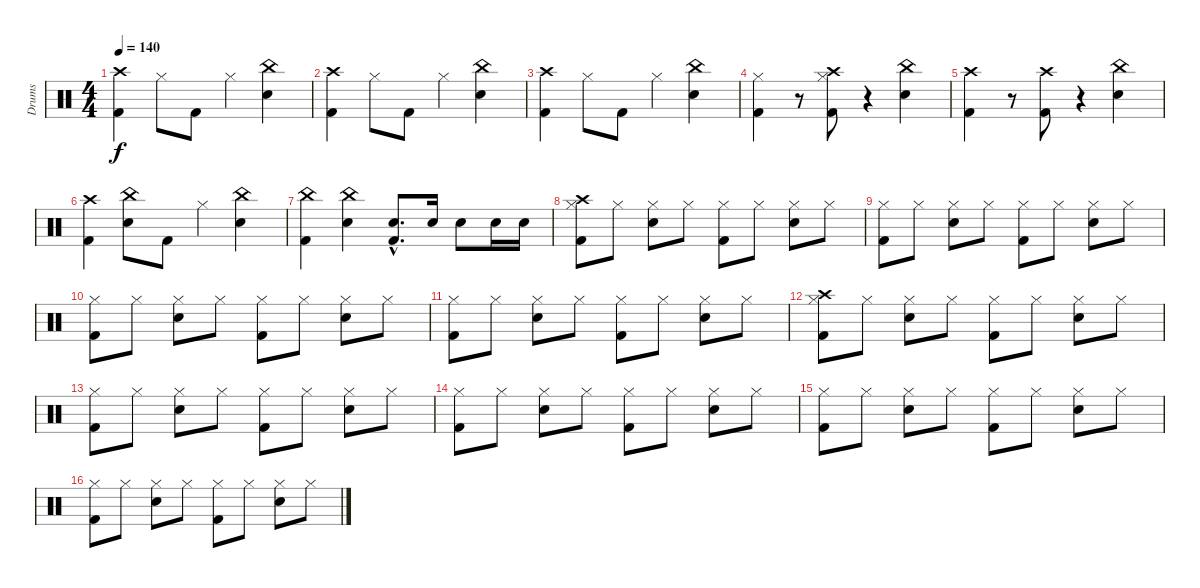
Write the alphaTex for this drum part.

\track ("Drums" "Drums") {instrument percussion}
\staff {score}
\articulation defaults
\ts (4 4)
\tempo 140
\clef neutral
\ks c
("Crash high (hit)" "Kick (hit) 2").4{dy f} "Hi-Hat (closed)".8 "Kick (hit) 2".8 "Hi-Hat (closed)".4 ("China (hit)" "Electric Snare (hit)").4 |
("Crash high (hit)" "Kick (hit) 2").4 "Hi-Hat (closed)".8 "Kick (hit) 2".8 "Hi-Hat (closed)".4 ("China (hit)" "Electric Snare (hit)").4 |
("Crash high (hit)" "Kick (hit) 2").4 "Hi-Hat (closed)".8 "Kick (hit) 2".8 "Hi-Hat (closed)".4 ("China (hit)" "Electric Snare (hit)").4 |
("Hi-Hat (closed)" "Kick (hit) 2").4 r.8 ("Crash high (hit)" "Kick (hit) 2" "Hi-Hat (closed)").8 r.4 ("China (hit)" "Electric Snare (hit)").4 |
("Crash high (hit)" "Kick (hit) 2").4 r.8 ("Crash high (hit)" "Kick (hit) 2").8 r.4 ("China (hit)" "Electric Snare (hit)").4 |
("Crash high (hit)" "Kick (hit) 2").4 ("China (hit)" "Electric Snare (hit)").8 "Kick (hit) 2".8 "Hi-Hat (closed)".4 ("China (hit)" "Electric Snare (hit)").4 |
("China (hit)" "Kick (hit) 2").4 ("China (hit)" "Electric Snare (hit)").4 ("Electric Snare (hit)"{hac} "Kick (hit) 2"{hac}).8{d} "Electric Snare (hit)".16 "Electric Snare (hit)".8 "Electric Snare (hit)".16 "Electric Snare (hit)".16 |
("Hi-Hat (closed)" "Kick (hit) 2" "Crash high (hit)").8 "Hi-Hat (closed)".8 ("Hi-Hat (closed)" "Electric Snare (hit)").8 "Hi-Hat (closed)".8 ("Hi-Hat (closed)" "Kick (hit) 2").8 "Hi-Hat (closed)".8 ("Hi-Hat (closed)" "Electric Snare (hit)").8 "Hi-Hat (closed)".8 |
("Hi-Hat (closed)" "Kick (hit) 2").8 "Hi-Hat (closed)".8 ("Hi-Hat (closed)" "Electric Snare (hit)").8 "Hi-Hat (closed)".8 ("Hi-Hat (closed)" "Kick (hit) 2").8 "Hi-Hat (closed)".8 ("Hi-Hat (closed)" "Electric Snare (hit)").8 "Hi-Hat (closed)".8 |
("Hi-Hat (closed)" "Kick (hit) 2").8 "Hi-Hat (closed)".8 ("Hi-Hat (closed)" "Electric Snare (hit)").8 "Hi-Hat (closed)".8 ("Hi-Hat (closed)" "Kick (hit) 2").8 "Hi-Hat (closed)".8 ("Hi-Hat (closed)" "Electric Snare (hit)").8 "Hi-Hat (closed)".8 |
("Hi-Hat (closed)" "Kick (hit) 2").8 "Hi-Hat (closed)".8 ("Hi-Hat (closed)" "Electric Snare (hit)").8 "Hi-Hat (closed)".8 ("Hi-Hat (closed)" "Kick (hit) 2").8 "Hi-Hat (closed)".8 ("Hi-Hat (closed)" "Electric Snare (hit)").8 "Hi-Hat (closed)".8 |
("Hi-Hat (closed)" "Kick (hit) 2" "Crash high (hit)").8 "Hi-Hat (closed)".8 ("Hi-Hat (closed)" "Electric Snare (hit)").8 "Hi-Hat (closed)".8 ("Hi-Hat (closed)" "Kick (hit) 2").8 "Hi-Hat (closed)".8 ("Hi-Hat (closed)" "Electric Snare (hit)").8 "Hi-Hat (closed)".8 |
("Hi-Hat (closed)" "Kick (hit) 2").8 "Hi-Hat (closed)".8 ("Hi-Hat (closed)" "Electric Snare (hit)").8 "Hi-Hat (closed)".8 ("Hi-Hat (closed)" "Kick (hit) 2").8 "Hi-Hat (closed)".8 ("Hi-Hat (closed)" "Electric Snare (hit)").8 "Hi-Hat (closed)".8 |
("Hi-Hat (closed)" "Kick (hit) 2").8 "Hi-Hat (closed)".8 ("Hi-Hat (closed)" "Electric Snare (hit)").8 "Hi-Hat (closed)".8 ("Hi-Hat (closed)" "Kick (hit) 2").8 "Hi-Hat (closed)".8 ("Hi-Hat (closed)" "Electric Snare (hit)").8 "Hi-Hat (closed)".8 |
("Hi-Hat (closed)" "Kick (hit) 2").8 "Hi-Hat (closed)".8 ("Hi-Hat (closed)" "Electric Snare (hit)").8 "Hi-Hat (closed)".8 ("Hi-Hat (closed)" "Kick (hit) 2").8 "Hi-Hat (closed)".8 ("Hi-Hat (closed)" "Electric Snare (hit)").8 "Hi-Hat (closed)".8 |
("Hi-Hat (closed)" "Kick (hit) 2").8 "Hi-Hat (closed)".8 ("Hi-Hat (closed)" "Electric Snare (hit)").8 "Hi-Hat (closed)".8 ("Hi-Hat (closed)" "Kick (hit) 2").8 "Hi-Hat (closed)".8 ("Hi-Hat (closed)" "Electric Snare (hit)").8 "Hi-Hat (closed)".8
